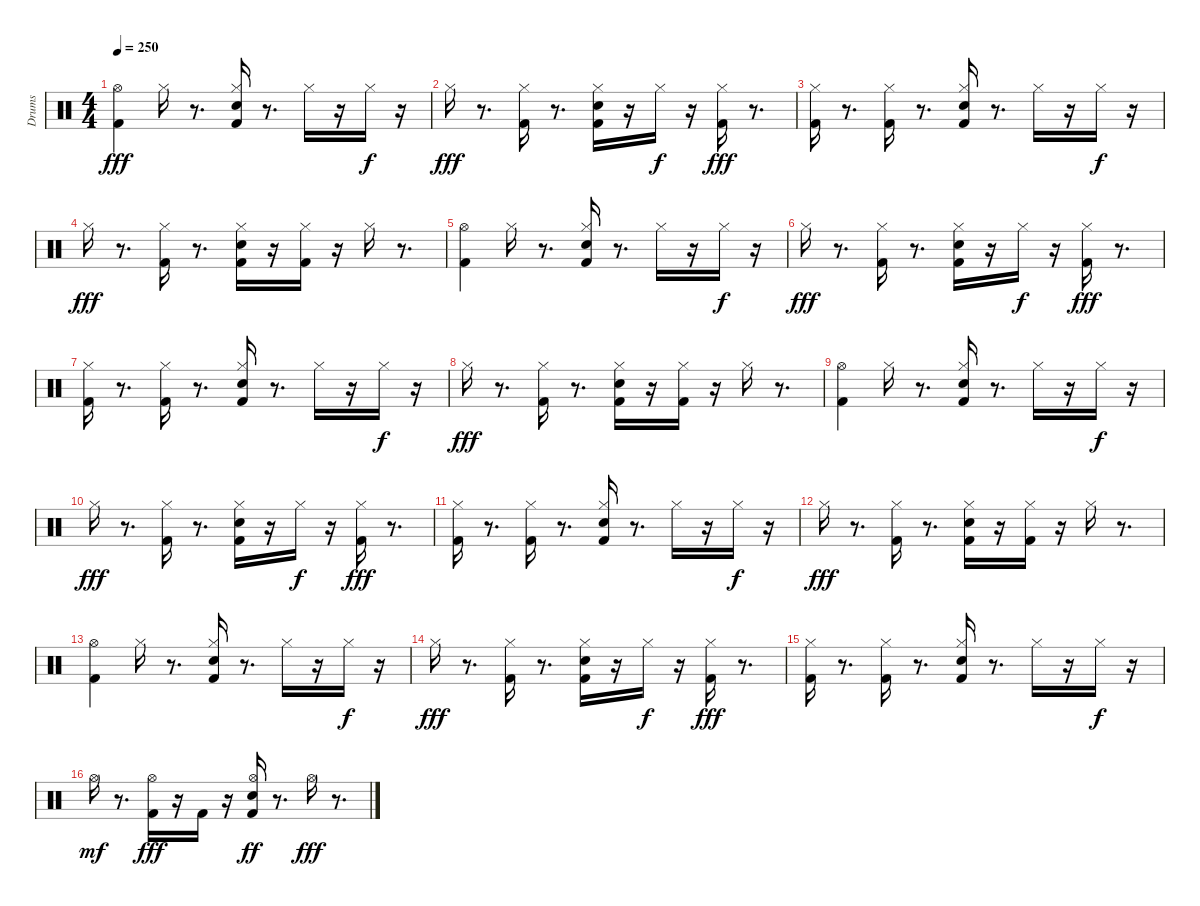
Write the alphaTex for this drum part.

\track ("Drums" "Drums") {instrument percussion}
\staff {score}
\articulation defaults
\ts (4 4)
\tempo 250
\clef neutral
\ks c
("Kick (hit) 2" "Hi-Hat (open)").4{dy fff} "Hi-Hat (closed)".16 r.8{d} ("Kick (hit) 2" "Electric Snare (hit)" "Hi-Hat (closed)").16 r.8{d} "Hi-Hat (closed)".16 r.16 "Hi-Hat (closed)".16{dy f} r.16 |
"Hi-Hat (closed)".16{dy fff} r.8{d} ("Kick (hit) 2" "Hi-Hat (closed)").16 r.8{d} ("Kick (hit) 2" "Electric Snare (hit)" "Hi-Hat (closed)").16 r.16 "Hi-Hat (closed)".16{dy f} r.16 ("Kick (hit) 2" "Hi-Hat (closed)").16{dy fff} r.8{d} |
("Kick (hit) 2" "Hi-Hat (closed)").16 r.8{d} ("Hi-Hat (closed)" "Kick (hit) 2").16 r.8{d} ("Kick (hit) 2" "Electric Snare (hit)" "Hi-Hat (closed)").16 r.8{d} "Hi-Hat (closed)".16 r.16 "Hi-Hat (closed)".16{dy f} r.16 |
"Hi-Hat (closed)".16{dy fff} r.8{d} ("Kick (hit) 2" "Hi-Hat (closed)").16 r.8{d} ("Kick (hit) 2" "Electric Snare (hit)" "Hi-Hat (closed)").16 r.16 ("Hi-Hat (closed)" "Kick (hit) 2").16 r.16 "Hi-Hat (closed)".16 r.8{d} |
("Hi-Hat (open)" "Kick (hit) 2").4 "Hi-Hat (closed)".16 r.8{d} ("Kick (hit) 2" "Electric Snare (hit)" "Hi-Hat (closed)").16 r.8{d} "Hi-Hat (closed)".16 r.16 "Hi-Hat (closed)".16{dy f} r.16 |
"Hi-Hat (closed)".16{dy fff} r.8{d} ("Kick (hit) 2" "Hi-Hat (closed)").16 r.8{d} ("Kick (hit) 2" "Electric Snare (hit)" "Hi-Hat (closed)").16 r.16 "Hi-Hat (closed)".16{dy f} r.16 ("Kick (hit) 2" "Hi-Hat (closed)").16{dy fff} r.8{d} |
("Kick (hit) 2" "Hi-Hat (closed)").16 r.8{d} ("Hi-Hat (closed)" "Kick (hit) 2").16 r.8{d} ("Kick (hit) 2" "Electric Snare (hit)" "Hi-Hat (closed)").16 r.8{d} "Hi-Hat (closed)".16 r.16 "Hi-Hat (closed)".16{dy f} r.16 |
"Hi-Hat (closed)".16{dy fff} r.8{d} ("Kick (hit) 2" "Hi-Hat (closed)").16 r.8{d} ("Kick (hit) 2" "Electric Snare (hit)" "Hi-Hat (closed)").16 r.16 ("Hi-Hat (closed)" "Kick (hit) 2").16 r.16 "Hi-Hat (closed)".16 r.8{d} |
("Hi-Hat (open)" "Kick (hit) 2").4 "Hi-Hat (closed)".16 r.8{d} ("Kick (hit) 2" "Electric Snare (hit)" "Hi-Hat (closed)").16 r.8{d} "Hi-Hat (closed)".16 r.16 "Hi-Hat (closed)".16{dy f} r.16 |
"Hi-Hat (closed)".16{dy fff} r.8{d} ("Kick (hit) 2" "Hi-Hat (closed)").16 r.8{d} ("Kick (hit) 2" "Electric Snare (hit)" "Hi-Hat (closed)").16 r.16 "Hi-Hat (closed)".16{dy f} r.16 ("Kick (hit) 2" "Hi-Hat (closed)").16{dy fff} r.8{d} |
("Kick (hit) 2" "Hi-Hat (closed)").16 r.8{d} ("Hi-Hat (closed)" "Kick (hit) 2").16 r.8{d} ("Kick (hit) 2" "Electric Snare (hit)" "Hi-Hat (closed)").16 r.8{d} "Hi-Hat (closed)".16 r.16 "Hi-Hat (closed)".16{dy f} r.16 |
"Hi-Hat (closed)".16{dy fff} r.8{d} ("Kick (hit) 2" "Hi-Hat (closed)").16 r.8{d} ("Kick (hit) 2" "Electric Snare (hit)" "Hi-Hat (closed)").16 r.16 ("Hi-Hat (closed)" "Kick (hit) 2").16 r.16 "Hi-Hat (closed)".16 r.8{d} |
("Hi-Hat (open)" "Kick (hit) 2").4 "Hi-Hat (closed)".16 r.8{d} ("Kick (hit) 2" "Electric Snare (hit)" "Hi-Hat (closed)").16 r.8{d} "Hi-Hat (closed)".16 r.16 "Hi-Hat (closed)".16{dy f} r.16 |
"Hi-Hat (closed)".16{dy fff} r.8{d} ("Kick (hit) 2" "Hi-Hat (closed)").16 r.8{d} ("Kick (hit) 2" "Electric Snare (hit)" "Hi-Hat (closed)").16 r.16 "Hi-Hat (closed)".16{dy f} r.16 ("Kick (hit) 2" "Hi-Hat (closed)").16{dy fff} r.8{d} |
("Kick (hit) 2" "Hi-Hat (closed)").16 r.8{d} ("Hi-Hat (closed)" "Kick (hit) 2").16 r.8{d} ("Kick (hit) 2" "Electric Snare (hit)" "Hi-Hat (closed)").16 r.8{d} "Hi-Hat (closed)".16 r.16 "Hi-Hat (closed)".16{dy f} r.16 |
"Hi-Hat (open)".16{dy mf} r.8{d} ("Kick (hit) 2" "Hi-Hat (open)").16{dy fff} r.16 "Kick (hit) 2".16 r.16 ("Kick (hit) 2" "Electric Snare (hit)" "Hi-Hat (open)").16{dy ff} r.8{d} "Hi-Hat (open)".16{dy fff} r.8{d}
